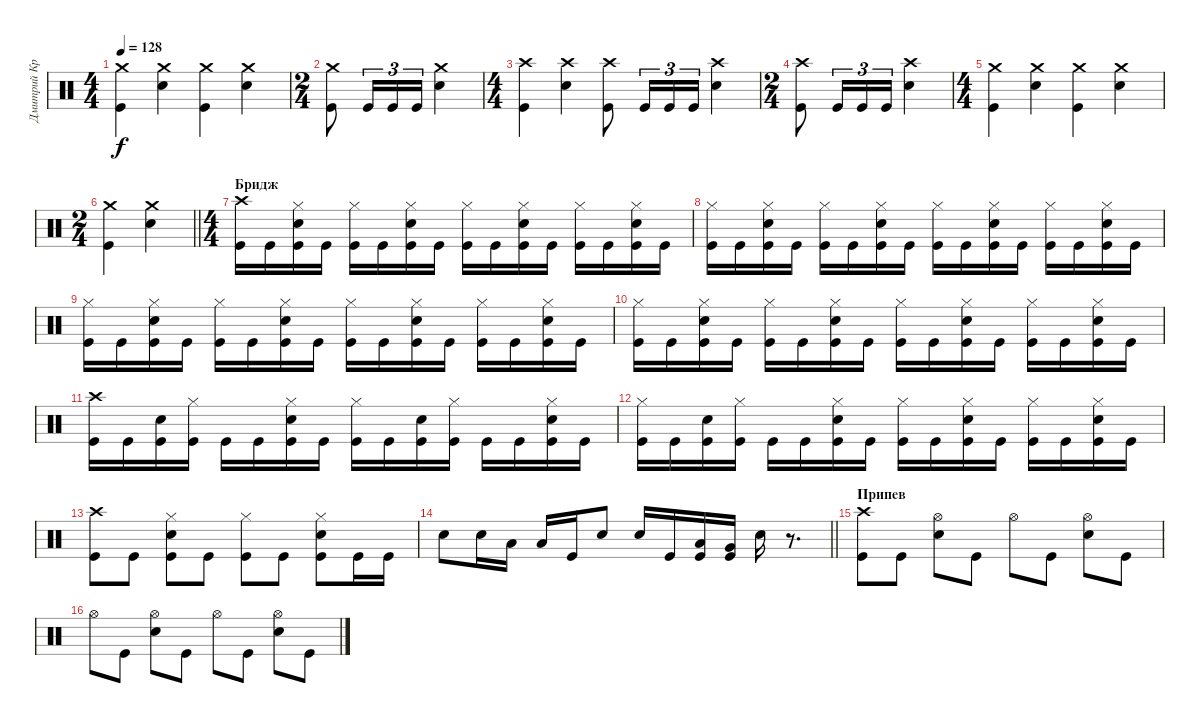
\track ("Дмитрий Кривенков" "Дмитрий Кр") {instrument percussion}
\staff {score}
\articulation defaults
\ts (4 4)
\tempo 128
\clef neutral
\ks c
("Crash medium (hit)" "Kick (hit)").4{dy f} ("Crash medium (hit)" "Snare (hit) 2").4 ("Crash medium (hit)" "Kick (hit)").4 ("Crash medium (hit)" "Snare (hit) 2").4 |
\ts (2 4)
("Crash medium (hit)" "Kick (hit)").8 "Kick (hit)".16{tu (3 2)} "Kick (hit)".16{tu (3 2)} "Kick (hit)".16{tu (3 2)} ("Crash medium (hit)" "Snare (hit) 2").4 |
\ts (4 4)
("Crash high (hit)" "Kick (hit)").4 ("Crash high (hit)" "Snare (hit) 2").4 ("Crash high (hit)" "Kick (hit)").8 "Kick (hit)".16{tu (3 2)} "Kick (hit)".16{tu (3 2)} "Kick (hit)".16{tu (3 2)} ("Crash high (hit)" "Snare (hit) 2").4 |
\ts (2 4)
("Crash high (hit)" "Kick (hit)").8 "Kick (hit)".16{tu (3 2)} "Kick (hit)".16{tu (3 2)} "Kick (hit)".16{tu (3 2)} ("Crash high (hit)" "Snare (hit) 2").4 |
\ts (4 4)
("Crash medium (hit)" "Kick (hit)").4 ("Crash medium (hit)" "Snare (hit) 2").4 ("Crash medium (hit)" "Kick (hit)").4 ("Crash medium (hit)" "Snare (hit) 2").4 |
\ts (2 4)
\barLineRight lightlight
("Crash medium (hit)" "Kick (hit)").4 ("Crash medium (hit)" "Snare (hit) 2").4 |
\ts (4 4)
\section ("" "Бридж")
("Crash high (hit)" "Kick (hit)").16 "Kick (hit)".16 ("Snare (hit) 2" "Hi-Hat (closed)" "Kick (hit)").16 "Kick (hit)".16 ("Hi-Hat (closed)" "Kick (hit)").16 "Kick (hit)".16 ("Snare (hit) 2" "Hi-Hat (closed)" "Kick (hit)").16 "Kick (hit)".16 ("Hi-Hat (closed)" "Kick (hit)").16 "Kick (hit)".16 ("Snare (hit) 2" "Hi-Hat (closed)" "Kick (hit)").16 "Kick (hit)".16 ("Hi-Hat (closed)" "Kick (hit)").16 "Kick (hit)".16 ("Snare (hit) 2" "Hi-Hat (closed)" "Kick (hit)").16 "Kick (hit)".16 |
("Hi-Hat (closed)" "Kick (hit)").16 "Kick (hit)".16 ("Snare (hit) 2" "Hi-Hat (closed)" "Kick (hit)").16 "Kick (hit)".16 ("Hi-Hat (closed)" "Kick (hit)").16 "Kick (hit)".16 ("Snare (hit) 2" "Hi-Hat (closed)" "Kick (hit)").16 "Kick (hit)".16 ("Hi-Hat (closed)" "Kick (hit)").16 "Kick (hit)".16 ("Snare (hit) 2" "Hi-Hat (closed)" "Kick (hit)").16 "Kick (hit)".16 ("Hi-Hat (closed)" "Kick (hit)").16 "Kick (hit)".16 ("Snare (hit) 2" "Hi-Hat (closed)" "Kick (hit)").16 "Kick (hit)".16 |
("Hi-Hat (closed)" "Kick (hit)").16 "Kick (hit)".16 ("Snare (hit) 2" "Hi-Hat (closed)" "Kick (hit)").16 "Kick (hit)".16 ("Hi-Hat (closed)" "Kick (hit)").16 "Kick (hit)".16 ("Snare (hit) 2" "Hi-Hat (closed)" "Kick (hit)").16 "Kick (hit)".16 ("Hi-Hat (closed)" "Kick (hit)").16 "Kick (hit)".16 ("Snare (hit) 2" "Hi-Hat (closed)" "Kick (hit)").16 "Kick (hit)".16 ("Hi-Hat (closed)" "Kick (hit)").16 "Kick (hit)".16 ("Snare (hit) 2" "Hi-Hat (closed)" "Kick (hit)").16 "Kick (hit)".16 |
("Hi-Hat (closed)" "Kick (hit)").16 "Kick (hit)".16 ("Snare (hit) 2" "Hi-Hat (closed)" "Kick (hit)").16 "Kick (hit)".16 ("Hi-Hat (closed)" "Kick (hit)").16 "Kick (hit)".16 ("Snare (hit) 2" "Hi-Hat (closed)" "Kick (hit)").16 "Kick (hit)".16 ("Hi-Hat (closed)" "Kick (hit)").16 "Kick (hit)".16 ("Snare (hit) 2" "Hi-Hat (closed)" "Kick (hit)").16 "Kick (hit)".16 ("Hi-Hat (closed)" "Kick (hit)").16 "Kick (hit)".16 ("Snare (hit) 2" "Hi-Hat (closed)" "Kick (hit)").16 "Kick (hit)".16 |
("Crash high (hit)" "Kick (hit)").16 "Kick (hit)".16 ("Snare (hit) 2" "Kick (hit)").16 ("Hi-Hat (closed)" "Kick (hit)").16 "Kick (hit)".16 "Kick (hit)".16 ("Snare (hit) 2" "Hi-Hat (closed)" "Kick (hit)").16 "Kick (hit)".16 ("Hi-Hat (closed)" "Kick (hit)").16 "Kick (hit)".16 ("Snare (hit) 2" "Kick (hit)").16 ("Hi-Hat (closed)" "Kick (hit)").16 "Kick (hit)".16 "Kick (hit)".16 ("Snare (hit) 2" "Hi-Hat (closed)" "Kick (hit)").16 "Kick (hit)".16 |
("Hi-Hat (closed)" "Kick (hit)").16 "Kick (hit)".16 ("Snare (hit) 2" "Kick (hit)").16 ("Hi-Hat (closed)" "Kick (hit)").16 "Kick (hit)".16 "Kick (hit)".16 ("Snare (hit) 2" "Hi-Hat (closed)" "Kick (hit)").16 "Kick (hit)".16 ("Hi-Hat (closed)" "Kick (hit)").16 "Kick (hit)".16 ("Snare (hit) 2" "Hi-Hat (closed)" "Kick (hit)").16 "Kick (hit)".16 ("Hi-Hat (closed)" "Kick (hit)").16 "Kick (hit)".16 ("Snare (hit) 2" "Hi-Hat (closed)" "Kick (hit)").16 "Kick (hit)".16 |
("Crash high (hit)" "Kick (hit)").8 "Kick (hit)".8 ("Snare (hit) 2" "Hi-Hat (closed)" "Kick (hit)").8 "Kick (hit)".8 ("Hi-Hat (closed)" "Kick (hit)").8 "Kick (hit)".8 ("Snare (hit) 2" "Hi-Hat (closed)" "Kick (hit)").8 "Kick (hit)".16 "Kick (hit)".16 |
\barLineRight lightlight "Snare (hit) 2".8 "Snare (hit) 2".16 "Low Tom (hit)".16 "Low Tom (hit)".16 "Kick (hit)".16 "Snare (hit) 2".8 "Snare (hit) 2".16 "Kick (hit)".16
("Kick (hit)" "Low Tom (hit)").16 ("Kick (hit)" "Very Low Tom (hit)").16 "Snare (hit) 2".16 r.8{d} |
\section ("" "Припев")
("Crash high (hit)" "Kick (hit)").8 "Kick (hit)".8 ("Snare (hit) 2" "Hi-Hat (open)").8 "Kick (hit)".8 "Hi-Hat (open)".8 "Kick (hit)".8 ("Snare (hit) 2" "Hi-Hat (open)").8 "Kick (hit)".8 |
"Hi-Hat (open)".8 "Kick (hit)".8 ("Snare (hit) 2" "Hi-Hat (open)").8 "Kick (hit)".8 "Hi-Hat (open)".8 "Kick (hit)".8 ("Snare (hit) 2" "Hi-Hat (open)").8 "Kick (hit)".8
